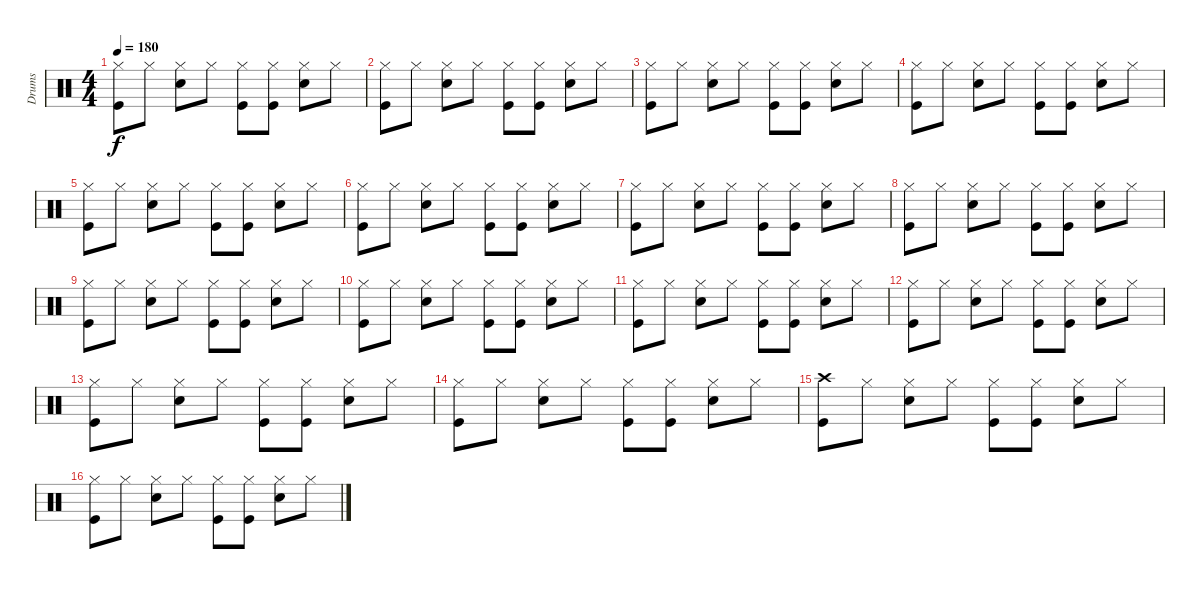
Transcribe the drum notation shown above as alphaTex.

\track ("Drums" "Drums") {instrument percussion}
\staff {score}
\articulation defaults
\ts (4 4)
\tempo 180
\clef neutral
\ks c
("Hi-Hat (closed)" "Kick (hit)").8{dy f} "Hi-Hat (closed)".8 ("Hi-Hat (closed)" "Electric Snare (hit)").8 "Hi-Hat (closed)".8 ("Kick (hit)" "Hi-Hat (closed)").8 ("Hi-Hat (closed)" "Kick (hit)").8 ("Hi-Hat (closed)" "Electric Snare (hit)").8 "Hi-Hat (closed)".8 |
("Hi-Hat (closed)" "Kick (hit)").8 "Hi-Hat (closed)".8 ("Hi-Hat (closed)" "Electric Snare (hit)").8 "Hi-Hat (closed)".8 ("Kick (hit)" "Hi-Hat (closed)").8 ("Hi-Hat (closed)" "Kick (hit)").8 ("Hi-Hat (closed)" "Electric Snare (hit)").8 "Hi-Hat (closed)".8 |
("Hi-Hat (closed)" "Kick (hit)").8 "Hi-Hat (closed)".8 ("Hi-Hat (closed)" "Electric Snare (hit)").8 "Hi-Hat (closed)".8 ("Kick (hit)" "Hi-Hat (closed)").8 ("Hi-Hat (closed)" "Kick (hit)").8 ("Hi-Hat (closed)" "Electric Snare (hit)").8 "Hi-Hat (closed)".8 |
("Hi-Hat (closed)" "Kick (hit)").8 "Hi-Hat (closed)".8 ("Hi-Hat (closed)" "Electric Snare (hit)").8 "Hi-Hat (closed)".8 ("Kick (hit)" "Hi-Hat (closed)").8 ("Hi-Hat (closed)" "Kick (hit)").8 ("Hi-Hat (closed)" "Electric Snare (hit)").8 "Hi-Hat (closed)".8 |
("Hi-Hat (closed)" "Kick (hit)").8 "Hi-Hat (closed)".8 ("Hi-Hat (closed)" "Electric Snare (hit)").8 "Hi-Hat (closed)".8 ("Kick (hit)" "Hi-Hat (closed)").8 ("Hi-Hat (closed)" "Kick (hit)").8 ("Hi-Hat (closed)" "Electric Snare (hit)").8 "Hi-Hat (closed)".8 |
("Hi-Hat (closed)" "Kick (hit)").8 "Hi-Hat (closed)".8 ("Hi-Hat (closed)" "Electric Snare (hit)").8 "Hi-Hat (closed)".8 ("Kick (hit)" "Hi-Hat (closed)").8 ("Hi-Hat (closed)" "Kick (hit)").8 ("Hi-Hat (closed)" "Electric Snare (hit)").8 "Hi-Hat (closed)".8 |
("Hi-Hat (closed)" "Kick (hit)").8 "Hi-Hat (closed)".8 ("Hi-Hat (closed)" "Electric Snare (hit)").8 "Hi-Hat (closed)".8 ("Kick (hit)" "Hi-Hat (closed)").8 ("Hi-Hat (closed)" "Kick (hit)").8 ("Hi-Hat (closed)" "Electric Snare (hit)").8 "Hi-Hat (closed)".8 |
("Hi-Hat (closed)" "Kick (hit)").8 "Hi-Hat (closed)".8 ("Hi-Hat (closed)" "Electric Snare (hit)").8 "Hi-Hat (closed)".8 ("Kick (hit)" "Hi-Hat (closed)").8 ("Hi-Hat (closed)" "Kick (hit)").8 ("Hi-Hat (closed)" "Electric Snare (hit)").8 "Hi-Hat (closed)".8 |
("Hi-Hat (closed)" "Kick (hit)").8 "Hi-Hat (closed)".8 ("Hi-Hat (closed)" "Electric Snare (hit)").8 "Hi-Hat (closed)".8 ("Kick (hit)" "Hi-Hat (closed)").8 ("Hi-Hat (closed)" "Kick (hit)").8 ("Hi-Hat (closed)" "Electric Snare (hit)").8 "Hi-Hat (closed)".8 |
("Hi-Hat (closed)" "Kick (hit)").8 "Hi-Hat (closed)".8 ("Hi-Hat (closed)" "Electric Snare (hit)").8 "Hi-Hat (closed)".8 ("Kick (hit)" "Hi-Hat (closed)").8 ("Hi-Hat (closed)" "Kick (hit)").8 ("Hi-Hat (closed)" "Electric Snare (hit)").8 "Hi-Hat (closed)".8 |
("Hi-Hat (closed)" "Kick (hit)").8 "Hi-Hat (closed)".8 ("Hi-Hat (closed)" "Electric Snare (hit)").8 "Hi-Hat (closed)".8 ("Kick (hit)" "Hi-Hat (closed)").8 ("Hi-Hat (closed)" "Kick (hit)").8 ("Hi-Hat (closed)" "Electric Snare (hit)").8 "Hi-Hat (closed)".8 |
("Hi-Hat (closed)" "Kick (hit)").8 "Hi-Hat (closed)".8 ("Hi-Hat (closed)" "Electric Snare (hit)").8 "Hi-Hat (closed)".8 ("Kick (hit)" "Hi-Hat (closed)").8 ("Hi-Hat (closed)" "Kick (hit)").8 ("Hi-Hat (closed)" "Electric Snare (hit)").8 "Hi-Hat (closed)".8 |
("Hi-Hat (closed)" "Kick (hit)").8 "Hi-Hat (closed)".8 ("Hi-Hat (closed)" "Electric Snare (hit)").8 "Hi-Hat (closed)".8 ("Kick (hit)" "Hi-Hat (closed)").8 ("Hi-Hat (closed)" "Kick (hit)").8 ("Hi-Hat (closed)" "Electric Snare (hit)").8 "Hi-Hat (closed)".8 |
("Hi-Hat (closed)" "Kick (hit)").8 "Hi-Hat (closed)".8 ("Hi-Hat (closed)" "Electric Snare (hit)").8 "Hi-Hat (closed)".8 ("Kick (hit)" "Hi-Hat (closed)").8 ("Hi-Hat (closed)" "Kick (hit)").8 ("Hi-Hat (closed)" "Electric Snare (hit)").8 "Hi-Hat (closed)".8 |
("Kick (hit)" "Crash high (hit)").8 "Hi-Hat (closed)".8 ("Hi-Hat (closed)" "Electric Snare (hit)").8 "Hi-Hat (closed)".8 ("Kick (hit)" "Hi-Hat (closed)").8 ("Hi-Hat (closed)" "Kick (hit)").8 ("Hi-Hat (closed)" "Electric Snare (hit)").8 "Hi-Hat (closed)".8 |
("Hi-Hat (closed)" "Kick (hit)").8 "Hi-Hat (closed)".8 ("Hi-Hat (closed)" "Electric Snare (hit)").8 "Hi-Hat (closed)".8 ("Kick (hit)" "Hi-Hat (closed)").8 ("Hi-Hat (closed)" "Kick (hit)").8 ("Hi-Hat (closed)" "Electric Snare (hit)").8 "Hi-Hat (closed)".8
